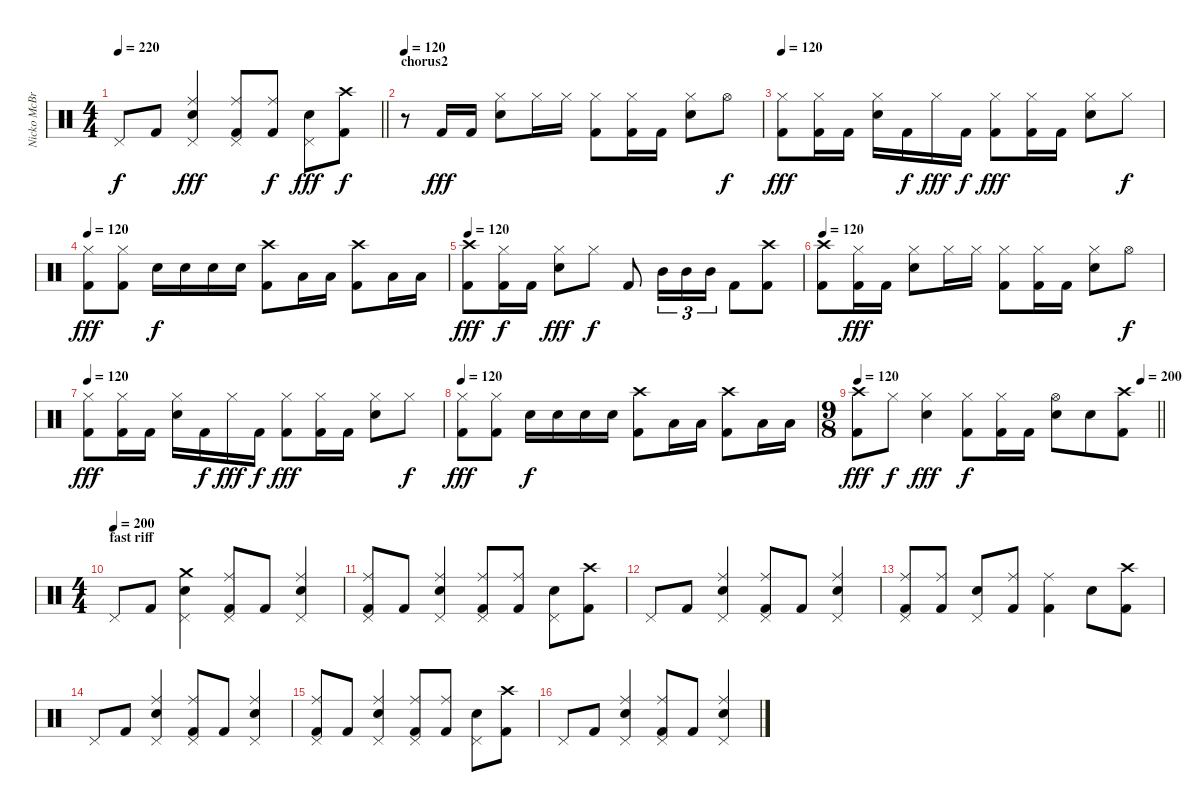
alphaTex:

\track ("Nicko McBrain" "Nicko McBr") {instrument percussion}
\staff {score}
\articulation defaults
\ts (4 4)
\tempo 220
\clef neutral
\barLineRight lightlight
\ks c "Pedal Hi-Hat (hit)".8{dy f} "Kick (hit) 2".8
("Ride (middle)" "Snare (hit) 2" "Pedal Hi-Hat (hit)").4{dy fff} ("Ride (middle)" "Pedal Hi-Hat (hit)" "Kick (hit) 2").8 ("Ride (middle)" "Kick (hit) 2").8{dy f} ("Snare (hit) 2" "Pedal Hi-Hat (hit)").8{dy fff} ("Crash high (hit)" "Kick (hit) 2").8{dy f} |
\section ("" "chorus2")
\tempo 120
r.8 "Kick (hit) 2".16{dy fff} "Kick (hit) 2".16 ("Hi-Hat (closed)" "Snare (hit) 2").8 "Hi-Hat (closed)".16 "Hi-Hat (closed)".16 ("Hi-Hat (closed)" "Kick (hit) 2").8 ("Hi-Hat (closed)" "Kick (hit) 2").16 "Kick (hit) 2".16 ("Hi-Hat (closed)" "Snare (hit) 2").8 "Hi-Hat (open)".8{dy f} |
\tempo 120
("Hi-Hat (closed)" "Kick (hit) 2").8{dy fff} ("Hi-Hat (closed)" "Kick (hit) 2").16 "Kick (hit) 2".16 ("Hi-Hat (closed)" "Snare (hit) 2").16 "Kick (hit) 2".16{dy f} "Hi-Hat (closed)".16{dy fff} "Kick (hit) 2".16{dy f} ("Hi-Hat (closed)" "Kick (hit) 2").8{dy fff} ("Hi-Hat (closed)" "Kick (hit) 2").16 "Kick (hit) 2".16 ("Hi-Hat (closed)" "Snare (hit) 2").8 "Hi-Hat (closed)".8{dy f} |
\tempo 120
("Hi-Hat (closed)" "Kick (hit) 2").8{dy fff} ("Hi-Hat (closed)" "Kick (hit) 2").8 "Snare (hit) 2".16{dy f} "Snare (hit) 2".16 "Snare (hit) 2".16 "Snare (hit) 2".16 ("Crash high (hit)" "Kick (hit) 2").8 "Low Tom (hit)".16 "Low Tom (hit)".16 ("Crash high (hit)" "Kick (hit) 2").8 "Low Floor Tom (hit)".16 "Low Floor Tom (hit)".16 |
\tempo 120
("Crash high (hit)" "Kick (hit) 2").8{dy fff} ("Hi-Hat (closed)" "Kick (hit) 2").16{dy f} "Kick (hit) 2".16 ("Hi-Hat (closed)" "Snare (hit) 2").8{dy fff} "Hi-Hat (closed)".8{dy f} "Kick (hit) 2".8 "Mid Tom (hit)".16{tu (3 2)} "Mid Tom (hit)".16{tu (3 2)} "Mid Tom (hit)".16{tu (3 2)} "Kick (hit) 2".8 ("Crash high (hit)" "Kick (hit) 2").8 |
\tempo 120
("Crash high (hit)" "Kick (hit) 2").8 ("Hi-Hat (closed)" "Kick (hit) 2").16{dy fff} "Kick (hit) 2".16 ("Hi-Hat (closed)" "Snare (hit) 2").8 "Hi-Hat (closed)".16 "Hi-Hat (closed)".16 ("Hi-Hat (closed)" "Kick (hit) 2").8 ("Hi-Hat (closed)" "Kick (hit) 2").16 "Kick (hit) 2".16 ("Hi-Hat (closed)" "Snare (hit) 2").8 "Hi-Hat (open)".8{dy f} |
\tempo 120
("Hi-Hat (closed)" "Kick (hit) 2").8{dy fff} ("Hi-Hat (closed)" "Kick (hit) 2").16 "Kick (hit) 2".16 ("Hi-Hat (closed)" "Snare (hit) 2").16 "Kick (hit) 2".16{dy f} "Hi-Hat (closed)".16{dy fff} "Kick (hit) 2".16{dy f} ("Hi-Hat (closed)" "Kick (hit) 2").8{dy fff} ("Hi-Hat (closed)" "Kick (hit) 2").16 "Kick (hit) 2".16 ("Hi-Hat (closed)" "Snare (hit) 2").8 "Hi-Hat (closed)".8{dy f} |
\tempo 120
("Hi-Hat (closed)" "Kick (hit) 2").8{dy fff} ("Hi-Hat (closed)" "Kick (hit) 2").8 "Snare (hit) 2".16{dy f} "Snare (hit) 2".16 "Snare (hit) 2".16 "Snare (hit) 2".16 ("Crash high (hit)" "Kick (hit) 2").8 "Low Tom (hit)".16 "Low Tom (hit)".16 ("Crash high (hit)" "Kick (hit) 2").8 "Low Floor Tom (hit)".16 "Low Floor Tom (hit)".16 |
\ts (9 8)
\tempo (200 0.9444444444444444)
\tempo 120
\barLineRight lightlight
("Crash high (hit)" "Kick (hit) 2").8{dy fff} "Hi-Hat (closed)".8{dy f} ("Hi-Hat (closed)" "Snare (hit) 2").4{dy fff} ("Hi-Hat (closed)" "Kick (hit) 2").8{dy f} ("Hi-Hat (closed)" "Kick (hit) 2").16 "Kick (hit) 2".16 ("Hi-Hat (open)" "Snare (hit) 2").8 "Snare (hit) 2".8 ("Crash high (hit)" "Kick (hit) 2").8 |
\ts (4 4)
\section ("" "fast riff")
\tempo 220
\tempo (200)
"Pedal Hi-Hat (hit)".8 "Kick (hit) 2".8 ("Crash medium (hit)" "Snare (hit) 2" "Pedal Hi-Hat (hit)").4 ("Ride (middle)" "Pedal Hi-Hat (hit)" "Kick (hit) 2").8 "Kick (hit) 2".8 ("Ride (middle)" "Snare (hit) 2" "Pedal Hi-Hat (hit)").4 |
("Ride (middle)" "Pedal Hi-Hat (hit)" "Kick (hit) 2").8 "Kick (hit) 2".8 ("Ride (middle)" "Snare (hit) 2" "Pedal Hi-Hat (hit)").4 ("Ride (middle)" "Pedal Hi-Hat (hit)" "Kick (hit) 2").8 ("Ride (middle)" "Kick (hit) 2").8 ("Snare (hit) 2" "Pedal Hi-Hat (hit)").8 ("Crash high (hit)" "Kick (hit) 2").8 |
"Pedal Hi-Hat (hit)".8 "Kick (hit) 2".8 ("Ride (middle)" "Snare (hit) 2" "Pedal Hi-Hat (hit)").4 ("Ride (middle)" "Pedal Hi-Hat (hit)" "Kick (hit) 2").8 "Kick (hit) 2".8 ("Ride (middle)" "Snare (hit) 2" "Pedal Hi-Hat (hit)").4 |
("Ride (middle)" "Pedal Hi-Hat (hit)" "Kick (hit) 2").8 ("Ride (middle)" "Kick (hit) 2").8 ("Snare (hit) 2" "Pedal Hi-Hat (hit)").8 ("Ride (middle)" "Kick (hit) 2").8 ("Ride (middle)" "Kick (hit) 2").4 "Snare (hit) 2".8 ("Crash high (hit)" "Kick (hit) 2").8 |
"Pedal Hi-Hat (hit)".8 "Kick (hit) 2".8 ("Ride (middle)" "Snare (hit) 2" "Pedal Hi-Hat (hit)").4 ("Ride (middle)" "Pedal Hi-Hat (hit)" "Kick (hit) 2").8 "Kick (hit) 2".8 ("Ride (middle)" "Snare (hit) 2" "Pedal Hi-Hat (hit)").4 |
("Ride (middle)" "Pedal Hi-Hat (hit)" "Kick (hit) 2").8 "Kick (hit) 2".8 ("Ride (middle)" "Snare (hit) 2" "Pedal Hi-Hat (hit)").4 ("Ride (middle)" "Pedal Hi-Hat (hit)" "Kick (hit) 2").8 ("Ride (middle)" "Kick (hit) 2").8 ("Snare (hit) 2" "Pedal Hi-Hat (hit)").8 ("Crash high (hit)" "Kick (hit) 2").8 |
"Pedal Hi-Hat (hit)".8 "Kick (hit) 2".8 ("Ride (middle)" "Snare (hit) 2" "Pedal Hi-Hat (hit)").4 ("Ride (middle)" "Pedal Hi-Hat (hit)" "Kick (hit) 2").8 "Kick (hit) 2".8 ("Ride (middle)" "Snare (hit) 2" "Pedal Hi-Hat (hit)").4
